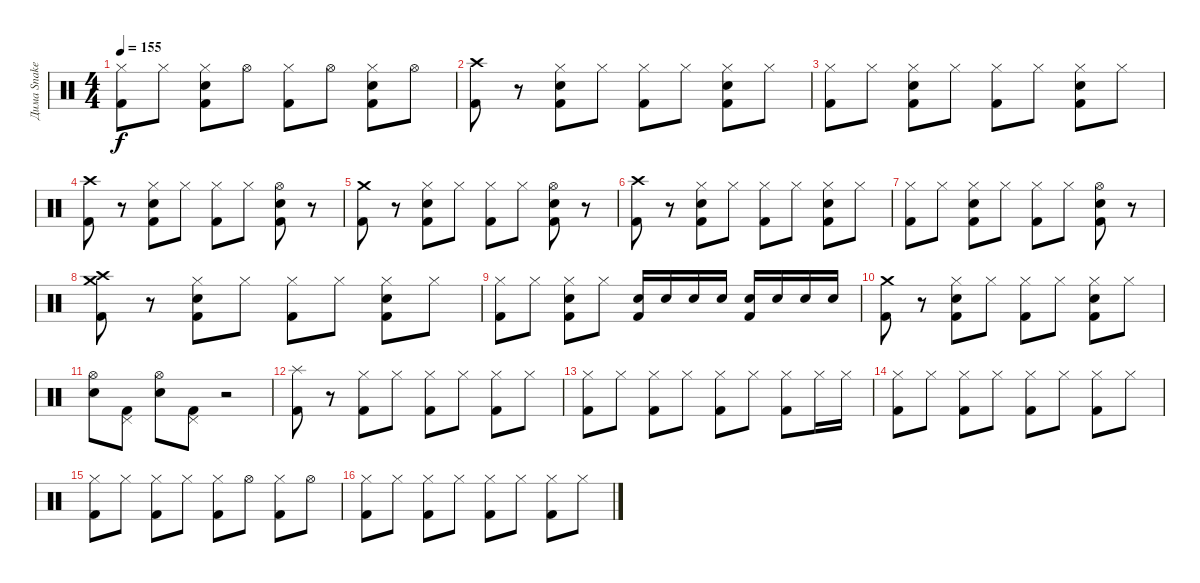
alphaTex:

\track ("Дима Snake Хакимов" "Дима Snake") {instrument percussion}
\staff {score}
\articulation defaults
\ts (4 4)
\tempo 155
\clef neutral
\ks c
("Hi-Hat (closed)" "Kick (hit) 2").8{dy f} "Hi-Hat (closed)".8 ("Hi-Hat (closed)" "Snare (hit) 2" "Kick (hit) 2").8 "Hi-Hat (open)".8 ("Hi-Hat (closed)" "Kick (hit) 2").8 "Hi-Hat (open)".8 ("Hi-Hat (closed)" "Snare (hit) 2" "Kick (hit) 2").8 "Hi-Hat (open)".8 |
("Crash high (hit)" "Kick (hit) 2").8 r.8 ("Hi-Hat (closed)" "Snare (hit) 2" "Kick (hit) 2").8 "Hi-Hat (closed)".8 ("Hi-Hat (closed)" "Kick (hit) 2").8 "Hi-Hat (closed)".8 ("Hi-Hat (closed)" "Snare (hit) 2" "Kick (hit) 2").8 "Hi-Hat (closed)".8 |
("Hi-Hat (closed)" "Kick (hit) 2").8 "Hi-Hat (closed)".8 ("Hi-Hat (closed)" "Snare (hit) 2" "Kick (hit) 2").8 "Hi-Hat (closed)".8 ("Hi-Hat (closed)" "Kick (hit) 2").8 "Hi-Hat (closed)".8 ("Hi-Hat (closed)" "Snare (hit) 2" "Kick (hit) 2").8 "Hi-Hat (closed)".8 |
("Crash high (hit)" "Kick (hit) 2").8 r.8 ("Hi-Hat (closed)" "Snare (hit) 2" "Kick (hit) 2").8 "Hi-Hat (closed)".8 ("Hi-Hat (closed)" "Kick (hit) 2").8 "Hi-Hat (closed)".8 ("Hi-Hat (open)" "Snare (hit) 2" "Kick (hit) 2").8 r.8 |
("Crash medium (hit)" "Kick (hit) 2").8 r.8 ("Hi-Hat (closed)" "Snare (hit) 2" "Kick (hit) 2").8 "Hi-Hat (closed)".8 ("Hi-Hat (closed)" "Kick (hit) 2").8 "Hi-Hat (closed)".8 ("Hi-Hat (open)" "Snare (hit) 2" "Kick (hit) 2").8 r.8 |
("Crash high (hit)" "Kick (hit) 2").8 r.8 ("Hi-Hat (closed)" "Snare (hit) 2" "Kick (hit) 2").8 "Hi-Hat (closed)".8 ("Hi-Hat (closed)" "Kick (hit) 2").8 "Hi-Hat (closed)".8 ("Hi-Hat (closed)" "Snare (hit) 2" "Kick (hit) 2").8 "Hi-Hat (closed)".8 |
("Hi-Hat (closed)" "Kick (hit) 2").8 "Hi-Hat (closed)".8 ("Hi-Hat (closed)" "Snare (hit) 2" "Kick (hit) 2").8 "Hi-Hat (closed)".8 ("Hi-Hat (closed)" "Kick (hit) 2").8 "Hi-Hat (closed)".8 ("Hi-Hat (open)" "Snare (hit) 2" "Kick (hit) 2").8 r.8 |
("Crash high (hit)" "Crash medium (hit)" "Kick (hit) 2").8 r.8 ("Hi-Hat (closed)" "Snare (hit) 2" "Kick (hit) 2").8 "Hi-Hat (closed)".8 ("Hi-Hat (closed)" "Kick (hit) 2").8 "Hi-Hat (closed)".8 ("Hi-Hat (closed)" "Snare (hit) 2" "Kick (hit) 2").8 "Hi-Hat (closed)".8 |
("Hi-Hat (closed)" "Kick (hit) 2").8 "Hi-Hat (closed)".8 ("Hi-Hat (closed)" "Snare (hit) 2" "Kick (hit) 2").8 "Hi-Hat (closed)".8 ("Snare (hit) 2" "Kick (hit) 2").16 "Snare (hit) 2".16 "Snare (hit) 2".16 "Snare (hit) 2".16 ("Snare (hit) 2" "Kick (hit) 2").16 "Snare (hit) 2".16 "Snare (hit) 2".16 "Snare (hit) 2".16 |
("Crash medium (hit)" "Kick (hit) 2").8 r.8 ("Hi-Hat (closed)" "Snare (hit) 2" "Kick (hit) 2").8 "Hi-Hat (closed)".8 ("Hi-Hat (closed)" "Kick (hit) 2").8 "Hi-Hat (closed)".8 ("Hi-Hat (closed)" "Snare (hit) 2" "Kick (hit) 2").8 "Hi-Hat (closed)".8 |
("Hi-Hat (open)" "Snare (hit) 2").8 ("Pedal Hi-Hat (hit)" "Kick (hit) 2").8 ("Hi-Hat (open)" "Snare (hit) 2").8 ("Pedal Hi-Hat (hit)" "Kick (hit) 2").8 r.2 |
("Splash (hit)" "Kick (hit) 2").8 r.8 ("Hi-Hat (closed)" "Kick (hit) 2").8 "Hi-Hat (closed)".8 ("Hi-Hat (closed)" "Kick (hit) 2").8 "Hi-Hat (closed)".8 ("Hi-Hat (closed)" "Kick (hit) 2").8 "Hi-Hat (closed)".8 |
("Hi-Hat (closed)" "Kick (hit) 2").8 "Hi-Hat (closed)".8 ("Hi-Hat (closed)" "Kick (hit) 2").8 "Hi-Hat (closed)".8 ("Hi-Hat (closed)" "Kick (hit) 2").8 "Hi-Hat (closed)".8 ("Hi-Hat (closed)" "Kick (hit) 2").8 "Hi-Hat (closed)".16 "Hi-Hat (closed)".16 |
("Hi-Hat (closed)" "Kick (hit) 2").8 "Hi-Hat (closed)".8 ("Hi-Hat (closed)" "Kick (hit) 2").8 "Hi-Hat (closed)".8 ("Hi-Hat (closed)" "Kick (hit) 2").8 "Hi-Hat (closed)".8 ("Hi-Hat (closed)" "Kick (hit) 2").8 "Hi-Hat (closed)".8 |
("Hi-Hat (closed)" "Kick (hit) 2").8 "Hi-Hat (closed)".8 ("Hi-Hat (closed)" "Kick (hit) 2").8 "Hi-Hat (closed)".8 ("Hi-Hat (closed)" "Kick (hit) 2").8 "Hi-Hat (open)".8 ("Hi-Hat (closed)" "Kick (hit) 2").8 "Hi-Hat (open)".8 |
("Hi-Hat (closed)" "Kick (hit) 2").8 "Hi-Hat (closed)".8 ("Hi-Hat (closed)" "Kick (hit) 2").8 "Hi-Hat (closed)".8 ("Hi-Hat (closed)" "Kick (hit) 2").8 "Hi-Hat (closed)".8 ("Hi-Hat (closed)" "Kick (hit) 2").8 "Hi-Hat (closed)".8
